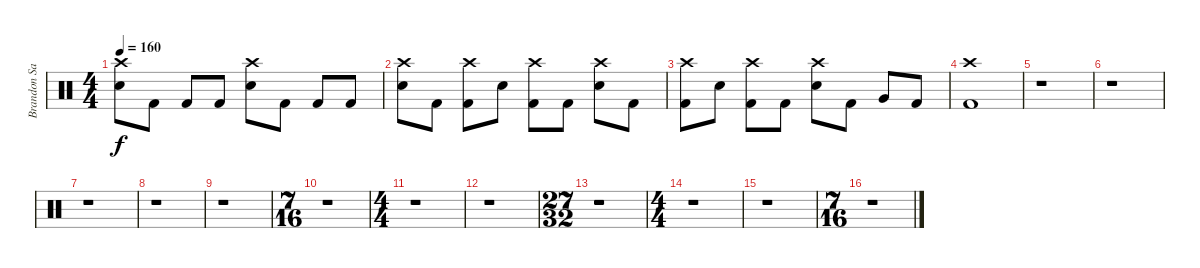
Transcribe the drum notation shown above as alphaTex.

\track ("Brandon Saller" "Brandon Sa") {instrument percussion}
\staff {score}
\articulation defaults
\ts (4 4)
\tempo 160
\clef neutral
\ks c
("Crash high (hit)" "Snare (hit) 2").8{dy f} "Kick (hit) 2".8 "Kick (hit) 2".8 "Kick (hit) 2".8 ("Crash high (hit)" "Snare (hit) 2").8 "Kick (hit) 2".8 "Kick (hit) 2".8 "Kick (hit) 2".8 |
("Crash high (hit)" "Snare (hit) 2").8 "Kick (hit) 2".8 ("Crash high (hit)" "Kick (hit) 2").8 "Snare (hit) 2".8 ("Crash high (hit)" "Kick (hit) 2").8 "Kick (hit) 2".8 ("Crash high (hit)" "Snare (hit) 2").8 "Kick (hit) 2".8 |
("Crash high (hit)" "Kick (hit) 2").8 "Snare (hit) 2".8 ("Crash high (hit)" "Kick (hit) 2").8 "Kick (hit) 2".8 ("Crash high (hit)" "Snare (hit) 2").8 "Kick (hit) 2".8 "Very Low Tom (hit)".8 "Kick (hit) 2".8 |
("Crash high (hit)" "Kick (hit) 2").1 |
r.1 |
r.1 |
r.1 |
r.1 |
r.1 |
\ts (7 16)
r.1 |
\ts (4 4)
r.1 |
r.1 |
\ts (27 32)
r.1 |
\ts (4 4)
r.1 |
r.1 |
\ts (7 16)
r.1
